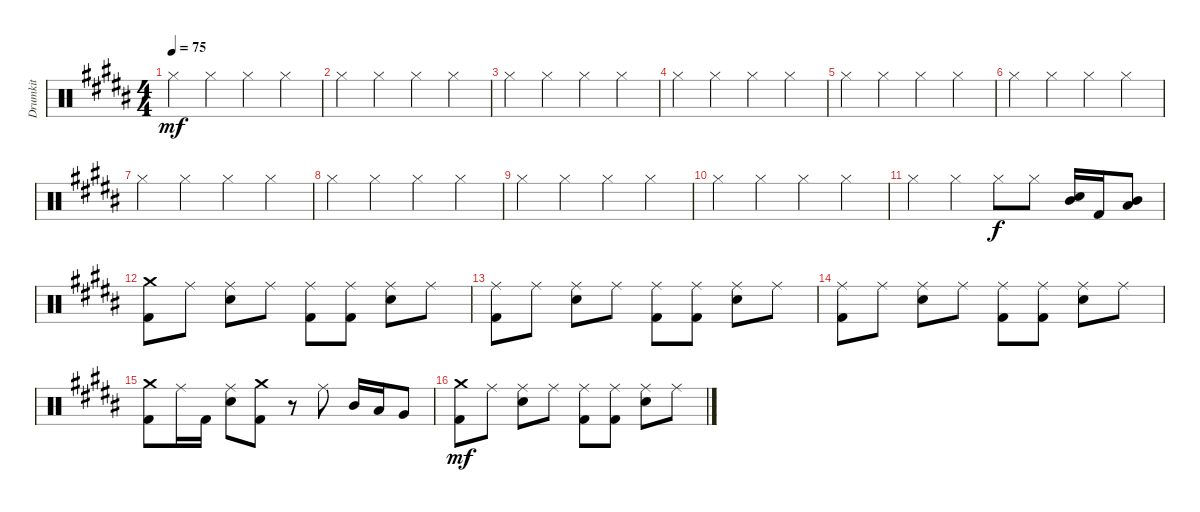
\track ("Drumkit" "Drumkit") {instrument percussion}
\staff {score}
\articulation defaults
\ts (4 4)
\tempo 75
\clef neutral
\ks b "Hi-Hat (closed)".4{dy mf} "Hi-Hat (closed)".4 "Hi-Hat (closed)".4 "Hi-Hat (closed)".4
|
"Hi-Hat (closed)".4 "Hi-Hat (closed)".4 "Hi-Hat (closed)".4 "Hi-Hat (closed)".4 |
"Hi-Hat (closed)".4 "Hi-Hat (closed)".4 "Hi-Hat (closed)".4 "Hi-Hat (closed)".4 |
"Hi-Hat (closed)".4 "Hi-Hat (closed)".4 "Hi-Hat (closed)".4 "Hi-Hat (closed)".4 |
"Hi-Hat (closed)".4 "Hi-Hat (closed)".4 "Hi-Hat (closed)".4 "Hi-Hat (closed)".4 |
"Hi-Hat (closed)".4 "Hi-Hat (closed)".4 "Hi-Hat (closed)".4 "Hi-Hat (closed)".4 |
"Hi-Hat (closed)".4 "Hi-Hat (closed)".4 "Hi-Hat (closed)".4 "Hi-Hat (closed)".4 |
"Hi-Hat (closed)".4 "Hi-Hat (closed)".4 "Hi-Hat (closed)".4 "Hi-Hat (closed)".4 |
"Hi-Hat (closed)".4 "Hi-Hat (closed)".4 "Hi-Hat (closed)".4 "Hi-Hat (closed)".4 |
"Hi-Hat (closed)".4 "Hi-Hat (closed)".4 "Hi-Hat (closed)".4 "Hi-Hat (closed)".4 |
"Hi-Hat (closed)".4 "Hi-Hat (closed)".4 "Hi-Hat (closed)".8{dy f} "Hi-Hat (closed)".8 ("Snare (hit) 2" "Mid Tom (hit)").16 "Kick (hit) 2".16 ("Mid Tom (hit)" "Low Tom (hit)").8 |
("Kick (hit) 2" "Crash medium (hit)").8 "Ride (middle)".8 ("Ride (middle)" "Snare (hit) 2").8 "Ride (middle)".8 ("Ride (middle)" "Kick (hit) 2").8 ("Ride (middle)" "Kick (hit) 2").8 ("Ride (middle)" "Snare (hit) 2").8 "Ride (middle)".8 |
("Kick (hit) 2" "Ride (middle)").8 "Ride (middle)".8 ("Ride (middle)" "Snare (hit) 2").8 "Ride (middle)".8 ("Ride (middle)" "Kick (hit) 2").8 ("Ride (middle)" "Kick (hit) 2").8 ("Ride (middle)" "Snare (hit) 2").8 "Ride (middle)".8 |
("Kick (hit) 2" "Ride (middle)").8 "Ride (middle)".8 ("Ride (middle)" "Snare (hit) 2").8 "Ride (middle)".8 ("Ride (middle)" "Kick (hit) 2").8 ("Ride (middle)" "Kick (hit) 2").8 ("Ride (middle)" "Snare (hit) 2").8 "Ride (middle)".8 |
("Kick (hit) 2" "Crash medium (hit)").8 "Ride (middle)".16 "Kick (hit) 2".16 ("Ride (middle)" "Snare (hit) 2").8 ("Kick (hit) 2" "Crash medium (hit)").8 r.8 "Ride (middle)".8 "Mid Tom (hit)".16 "Low Tom (hit)".16 "Very Low Tom (hit)".8 |
("Kick (hit) 2" "Crash medium (hit)").8{dy mf} "Ride (middle)".8 ("Ride (middle)" "Snare (hit) 2").8 "Ride (middle)".8 ("Ride (middle)" "Kick (hit) 2").8 ("Ride (middle)" "Kick (hit) 2").8 ("Ride (middle)" "Snare (hit) 2").8 "Ride (middle)".8
